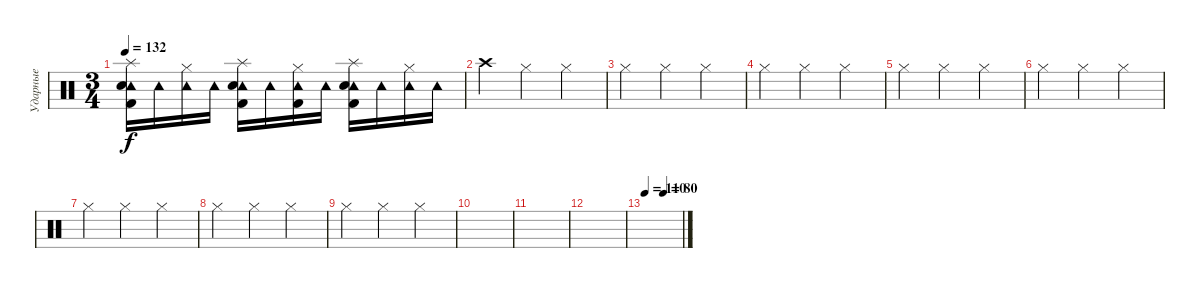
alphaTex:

\track ("Ударные" "Ударные") {instrument percussion}
\staff {score}
\articulation defaults
\ts (3 4)
\tempo 132
\clef neutral
\ks c
("Splash (hit)" "Tambourine (hit)" "Kick (hit) 2" "Electric Snare (hit)").16{dy f} "Tambourine (hit)".16 ("Hi-Hat (closed)" "Tambourine (hit)").16 "Tambourine (hit)".16 ("Splash (hit)" "Tambourine (hit)" "Kick (hit) 2" "Electric Snare (hit)").16 "Tambourine (hit)".16 ("Hi-Hat (closed)" "Tambourine (hit)" "Kick (hit) 2").16 "Tambourine (hit)".16 ("Splash (hit)" "Tambourine (hit)" "Kick (hit) 2" "Electric Snare (hit)").16 "Tambourine (hit)".16 ("Hi-Hat (closed)" "Tambourine (hit)").16 "Tambourine (hit)".16 |
"Crash high (hit)".4 "Hi-Hat (closed)".4 "Hi-Hat (closed)".4 |
"Hi-Hat (closed)".4 "Hi-Hat (closed)".4 "Hi-Hat (closed)".4 |
"Hi-Hat (closed)".4 "Hi-Hat (closed)".4 "Hi-Hat (closed)".4 |
"Hi-Hat (closed)".4 "Hi-Hat (closed)".4 "Hi-Hat (closed)".4 |
"Hi-Hat (closed)".4 "Hi-Hat (closed)".4 "Hi-Hat (closed)".4 |
"Hi-Hat (closed)".4 "Hi-Hat (closed)".4 "Hi-Hat (closed)".4 |
"Hi-Hat (closed)".4 "Hi-Hat (closed)".4 "Hi-Hat (closed)".4 |
"Hi-Hat (closed)".4 "Hi-Hat (closed)".4 "Hi-Hat (closed)".4 |
|
|
|
\tempo 110
\tempo (80 0.5)
